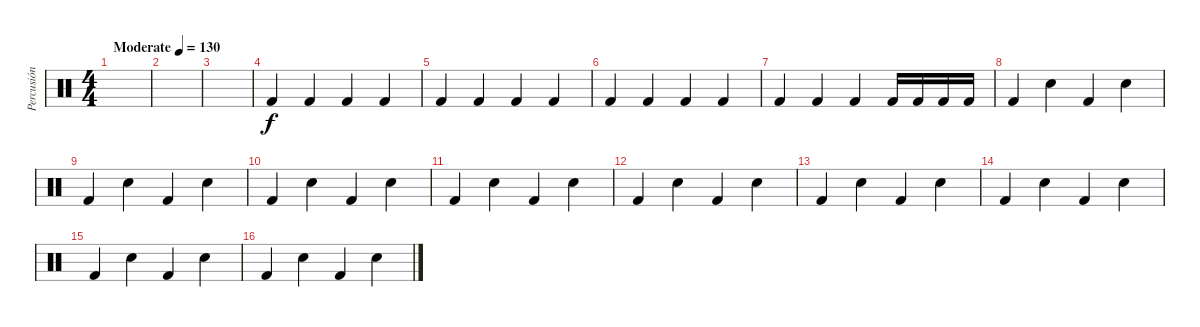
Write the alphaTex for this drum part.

\track ("Percusión" "Percusión") {instrument percussion}
\staff {score}
\articulation defaults
\ts (4 4)
\tempo (130 "Moderate")
\clef neutral
\ks c
|
|
|
"Kick (hit) 2".4 "Kick (hit) 2".4 "Kick (hit) 2".4 "Kick (hit) 2".4 |
"Kick (hit) 2".4 "Kick (hit) 2".4 "Kick (hit) 2".4 "Kick (hit) 2".4 |
"Kick (hit) 2".4 "Kick (hit) 2".4 "Kick (hit) 2".4 "Kick (hit) 2".4 |
"Kick (hit) 2".4 "Kick (hit) 2".4 "Kick (hit) 2".4 "Kick (hit) 2".16 "Kick (hit) 2".16 "Kick (hit) 2".16 "Kick (hit) 2".16 |
"Kick (hit) 2".4 "Snare (hit) 2".4 "Kick (hit) 2".4 "Snare (hit) 2".4 |
"Kick (hit) 2".4 "Snare (hit) 2".4 "Kick (hit) 2".4 "Snare (hit) 2".4 |
"Kick (hit) 2".4 "Snare (hit) 2".4 "Kick (hit) 2".4 "Snare (hit) 2".4 |
"Kick (hit) 2".4 "Snare (hit) 2".4 "Kick (hit) 2".4 "Snare (hit) 2".4 |
"Kick (hit) 2".4 "Snare (hit) 2".4 "Kick (hit) 2".4 "Snare (hit) 2".4 |
"Kick (hit) 2".4 "Snare (hit) 2".4 "Kick (hit) 2".4 "Snare (hit) 2".4 |
"Kick (hit) 2".4 "Snare (hit) 2".4 "Kick (hit) 2".4 "Snare (hit) 2".4 |
"Kick (hit) 2".4 "Snare (hit) 2".4 "Kick (hit) 2".4 "Snare (hit) 2".4 |
"Kick (hit) 2".4 "Snare (hit) 2".4 "Kick (hit) 2".4 "Snare (hit) 2".4
